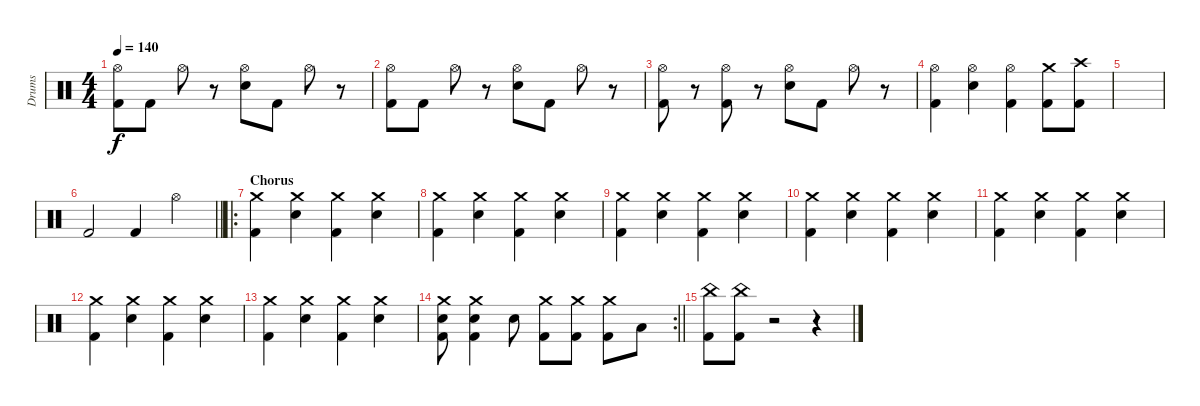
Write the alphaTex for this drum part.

\track ("Drums" "Drums") {instrument percussion}
\staff {score}
\articulation defaults
\ts (4 4)
\tempo 140
\clef neutral
\ks c
("Hi-Hat (open)" "Kick (hit) 2").8{dy f} "Kick (hit) 2".8 "Hi-Hat (open)".8 r.8 ("Hi-Hat (open)" "Snare (hit) 2").8 "Kick (hit) 2".8 "Hi-Hat (open)".8 r.8 |
("Hi-Hat (open)" "Kick (hit) 2").8 "Kick (hit) 2".8 "Hi-Hat (open)".8 r.8 ("Hi-Hat (open)" "Snare (hit) 2").8 "Kick (hit) 2".8 "Hi-Hat (open)".8 r.8 |
("Hi-Hat (open)" "Kick (hit) 2").8 r.8 ("Hi-Hat (open)" "Kick (hit) 2").8 r.8 ("Hi-Hat (open)" "Snare (hit) 2").8 "Kick (hit) 2".8 "Hi-Hat (open)".8 r.8 |
("Hi-Hat (open)" "Kick (hit) 2").4 ("Hi-Hat (open)" "Snare (hit) 2").4 ("Hi-Hat (open)" "Kick (hit) 2").4 ("Crash medium (hit)" "Kick (hit) 2").8 ("Crash high (hit)" "Kick (hit) 2").8 |
|
\barLineRight lightlight "Kick (hit) 2".2 "Kick (hit) 2".4 "Hi-Hat (open)".4
|
\ro
\section ("" "Chorus")
("Kick (hit) 2" "Crash medium (hit)").4 ("Crash medium (hit)" "Snare (hit) 2").4 ("Kick (hit) 2" "Crash medium (hit)").4 ("Crash medium (hit)" "Snare (hit) 2").4 |
("Kick (hit) 2" "Crash medium (hit)").4 ("Crash medium (hit)" "Snare (hit) 2").4 ("Kick (hit) 2" "Crash medium (hit)").4 ("Crash medium (hit)" "Snare (hit) 2").4 |
("Kick (hit) 2" "Crash medium (hit)").4 ("Crash medium (hit)" "Snare (hit) 2").4 ("Kick (hit) 2" "Crash medium (hit)").4 ("Crash medium (hit)" "Snare (hit) 2").4 |
("Kick (hit) 2" "Crash medium (hit)").4 ("Crash medium (hit)" "Snare (hit) 2").4 ("Kick (hit) 2" "Crash medium (hit)").4 ("Crash medium (hit)" "Snare (hit) 2").4 |
("Kick (hit) 2" "Crash medium (hit)").4 ("Crash medium (hit)" "Snare (hit) 2").4 ("Kick (hit) 2" "Crash medium (hit)").4 ("Crash medium (hit)" "Snare (hit) 2").4 |
("Kick (hit) 2" "Crash medium (hit)").4 ("Crash medium (hit)" "Snare (hit) 2").4 ("Kick (hit) 2" "Crash medium (hit)").4 ("Crash medium (hit)" "Snare (hit) 2").4 |
("Kick (hit) 2" "Crash medium (hit)").4 ("Crash medium (hit)" "Snare (hit) 2").4 ("Kick (hit) 2" "Crash medium (hit)").4 ("Crash medium (hit)" "Snare (hit) 2").4 |
\rc 2
\barLineRight lightlight
("Kick (hit) 2" "Crash medium (hit)" "Snare (hit) 2").8 ("Kick (hit) 2" "Crash medium (hit)" "Snare (hit) 2").4 "Snare (hit) 2".8 ("Kick (hit) 2" "Crash medium (hit)").8 ("Kick (hit) 2" "Crash medium (hit)").8 ("Kick (hit) 2" "Crash medium (hit)").8 "Low Tom (hit)".8 |
("China (hit)" "Kick (hit) 2").8 ("China (hit)" "Kick (hit) 2").8 r.2 r.4
